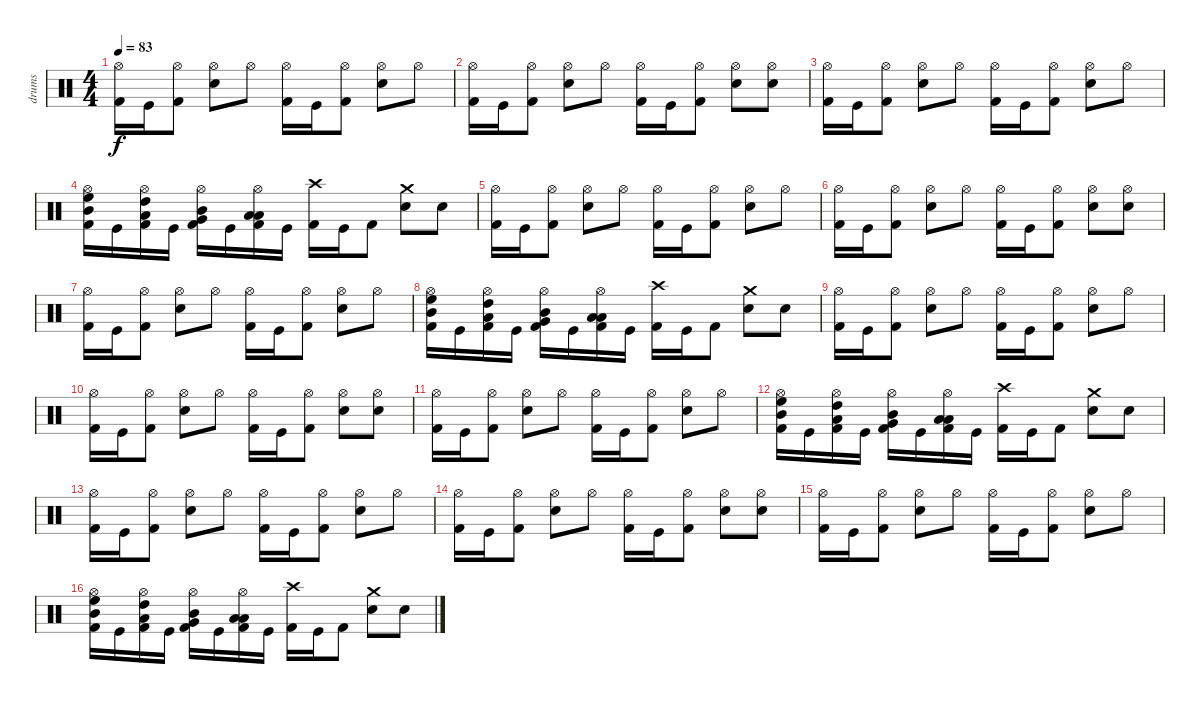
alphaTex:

\track ("drums" "drums") {instrument percussion}
\staff {score}
\articulation defaults
\ts (4 4)
\tempo 83
\clef neutral
\ks c
("Hi-Hat (open)" "Kick (hit) 2").16{dy f} "Kick (hit)".16 ("Kick (hit) 2" "Hi-Hat (open)").8 ("Electric Snare (hit)" "Hi-Hat (open)").8 "Hi-Hat (open)".8 ("Kick (hit) 2" "Hi-Hat (open)").16 "Kick (hit)".16 ("Kick (hit) 2" "Hi-Hat (open)").8 ("Electric Snare (hit)" "Hi-Hat (open)").8 "Hi-Hat (open)".8 |
("Kick (hit) 2" "Hi-Hat (open)").16 "Kick (hit)".16 ("Kick (hit) 2" "Hi-Hat (open)").8 ("Electric Snare (hit)" "Hi-Hat (open)").8 "Hi-Hat (open)".8 ("Kick (hit) 2" "Hi-Hat (open)").16 "Kick (hit)".16 ("Kick (hit) 2" "Hi-Hat (open)").8 ("Electric Snare (hit)" "Hi-Hat (open)").8 ("Snare (hit) 2" "Hi-Hat (open)").8 |
("Hi-Hat (open)" "Kick (hit) 2").16 "Kick (hit)".16 ("Kick (hit) 2" "Hi-Hat (open)").8 ("Electric Snare (hit)" "Hi-Hat (open)").8 "Hi-Hat (open)".8 ("Kick (hit) 2" "Hi-Hat (open)").16 "Kick (hit)".16 ("Kick (hit) 2" "Hi-Hat (open)").8 ("Electric Snare (hit)" "Hi-Hat (open)").8 "Hi-Hat (open)".8 |
("Kick (hit) 2" "Mid Tom (hit)" "High Floor Tom (hit)" "Hi-Hat (open)").16 "Kick (hit)".16 ("Kick (hit) 2" "Low Tom (hit)" "High Tom (hit)" "Hi-Hat (open)").16 "Kick (hit)".16 ("Kick (hit) 2" "Very Low Tom (hit)" "Mid Tom (hit)" "Hi-Hat (open)").16 "Kick (hit)".16 ("Kick (hit) 2" "Low Floor Tom (hit)" "Low Tom (hit)" "Hi-Hat (open)").16 "Kick (hit)".16 ("Kick (hit) 2" "Crash high (hit)").16 "Kick (hit)".16 "Kick (hit) 2".8 ("Electric Snare (hit)" "Crash medium (hit)").8 "Snare (hit) 2".8 |
("Hi-Hat (open)" "Kick (hit) 2").16 "Kick (hit)".16 ("Kick (hit) 2" "Hi-Hat (open)").8 ("Electric Snare (hit)" "Hi-Hat (open)").8 "Hi-Hat (open)".8 ("Kick (hit) 2" "Hi-Hat (open)").16 "Kick (hit)".16 ("Kick (hit) 2" "Hi-Hat (open)").8 ("Electric Snare (hit)" "Hi-Hat (open)").8 "Hi-Hat (open)".8 |
("Kick (hit) 2" "Hi-Hat (open)").16 "Kick (hit)".16 ("Kick (hit) 2" "Hi-Hat (open)").8 ("Electric Snare (hit)" "Hi-Hat (open)").8 "Hi-Hat (open)".8 ("Kick (hit) 2" "Hi-Hat (open)").16 "Kick (hit)".16 ("Kick (hit) 2" "Hi-Hat (open)").8 ("Electric Snare (hit)" "Hi-Hat (open)").8 ("Snare (hit) 2" "Hi-Hat (open)").8 |
("Hi-Hat (open)" "Kick (hit) 2").16 "Kick (hit)".16 ("Kick (hit) 2" "Hi-Hat (open)").8 ("Electric Snare (hit)" "Hi-Hat (open)").8 "Hi-Hat (open)".8 ("Kick (hit) 2" "Hi-Hat (open)").16 "Kick (hit)".16 ("Kick (hit) 2" "Hi-Hat (open)").8 ("Electric Snare (hit)" "Hi-Hat (open)").8 "Hi-Hat (open)".8 |
("Kick (hit) 2" "Mid Tom (hit)" "High Floor Tom (hit)" "Hi-Hat (open)").16 "Kick (hit)".16 ("Kick (hit) 2" "Low Tom (hit)" "High Tom (hit)" "Hi-Hat (open)").16 "Kick (hit)".16 ("Kick (hit) 2" "Very Low Tom (hit)" "Mid Tom (hit)" "Hi-Hat (open)").16 "Kick (hit)".16 ("Kick (hit) 2" "Low Floor Tom (hit)" "Low Tom (hit)" "Hi-Hat (open)").16 "Kick (hit)".16 ("Kick (hit) 2" "Crash high (hit)").16 "Kick (hit)".16 "Kick (hit) 2".8 ("Electric Snare (hit)" "Crash medium (hit)").8 "Snare (hit) 2".8 |
("Hi-Hat (open)" "Kick (hit) 2").16 "Kick (hit)".16 ("Kick (hit) 2" "Hi-Hat (open)").8 ("Electric Snare (hit)" "Hi-Hat (open)").8 "Hi-Hat (open)".8 ("Kick (hit) 2" "Hi-Hat (open)").16 "Kick (hit)".16 ("Kick (hit) 2" "Hi-Hat (open)").8 ("Electric Snare (hit)" "Hi-Hat (open)").8 "Hi-Hat (open)".8 |
("Kick (hit) 2" "Hi-Hat (open)").16 "Kick (hit)".16 ("Kick (hit) 2" "Hi-Hat (open)").8 ("Electric Snare (hit)" "Hi-Hat (open)").8 "Hi-Hat (open)".8 ("Kick (hit) 2" "Hi-Hat (open)").16 "Kick (hit)".16 ("Kick (hit) 2" "Hi-Hat (open)").8 ("Electric Snare (hit)" "Hi-Hat (open)").8 ("Snare (hit) 2" "Hi-Hat (open)").8 |
("Hi-Hat (open)" "Kick (hit) 2").16 "Kick (hit)".16 ("Kick (hit) 2" "Hi-Hat (open)").8 ("Electric Snare (hit)" "Hi-Hat (open)").8 "Hi-Hat (open)".8 ("Kick (hit) 2" "Hi-Hat (open)").16 "Kick (hit)".16 ("Kick (hit) 2" "Hi-Hat (open)").8 ("Electric Snare (hit)" "Hi-Hat (open)").8 "Hi-Hat (open)".8 |
("Kick (hit) 2" "Mid Tom (hit)" "High Floor Tom (hit)" "Hi-Hat (open)").16 "Kick (hit)".16 ("Kick (hit) 2" "Low Tom (hit)" "High Tom (hit)" "Hi-Hat (open)").16 "Kick (hit)".16 ("Kick (hit) 2" "Very Low Tom (hit)" "Mid Tom (hit)" "Hi-Hat (open)").16 "Kick (hit)".16 ("Kick (hit) 2" "Low Floor Tom (hit)" "Low Tom (hit)" "Hi-Hat (open)").16 "Kick (hit)".16 ("Kick (hit) 2" "Crash high (hit)").16 "Kick (hit)".16 "Kick (hit) 2".8 ("Electric Snare (hit)" "Crash medium (hit)").8 "Snare (hit) 2".8 |
("Hi-Hat (open)" "Kick (hit) 2").16 "Kick (hit)".16 ("Kick (hit) 2" "Hi-Hat (open)").8 ("Electric Snare (hit)" "Hi-Hat (open)").8 "Hi-Hat (open)".8 ("Kick (hit) 2" "Hi-Hat (open)").16 "Kick (hit)".16 ("Kick (hit) 2" "Hi-Hat (open)").8 ("Electric Snare (hit)" "Hi-Hat (open)").8 "Hi-Hat (open)".8 |
("Kick (hit) 2" "Hi-Hat (open)").16 "Kick (hit)".16 ("Kick (hit) 2" "Hi-Hat (open)").8 ("Electric Snare (hit)" "Hi-Hat (open)").8 "Hi-Hat (open)".8 ("Kick (hit) 2" "Hi-Hat (open)").16 "Kick (hit)".16 ("Kick (hit) 2" "Hi-Hat (open)").8 ("Electric Snare (hit)" "Hi-Hat (open)").8 ("Snare (hit) 2" "Hi-Hat (open)").8 |
("Hi-Hat (open)" "Kick (hit) 2").16 "Kick (hit)".16 ("Kick (hit) 2" "Hi-Hat (open)").8 ("Electric Snare (hit)" "Hi-Hat (open)").8 "Hi-Hat (open)".8 ("Kick (hit) 2" "Hi-Hat (open)").16 "Kick (hit)".16 ("Kick (hit) 2" "Hi-Hat (open)").8 ("Electric Snare (hit)" "Hi-Hat (open)").8 "Hi-Hat (open)".8 |
("Kick (hit) 2" "Mid Tom (hit)" "High Floor Tom (hit)" "Hi-Hat (open)").16 "Kick (hit)".16 ("Kick (hit) 2" "Low Tom (hit)" "High Tom (hit)" "Hi-Hat (open)").16 "Kick (hit)".16 ("Kick (hit) 2" "Very Low Tom (hit)" "Mid Tom (hit)" "Hi-Hat (open)").16 "Kick (hit)".16 ("Kick (hit) 2" "Low Floor Tom (hit)" "Low Tom (hit)" "Hi-Hat (open)").16 "Kick (hit)".16 ("Kick (hit) 2" "Crash high (hit)").16 "Kick (hit)".16 "Kick (hit) 2".8 ("Electric Snare (hit)" "Crash medium (hit)").8 "Snare (hit) 2".8
